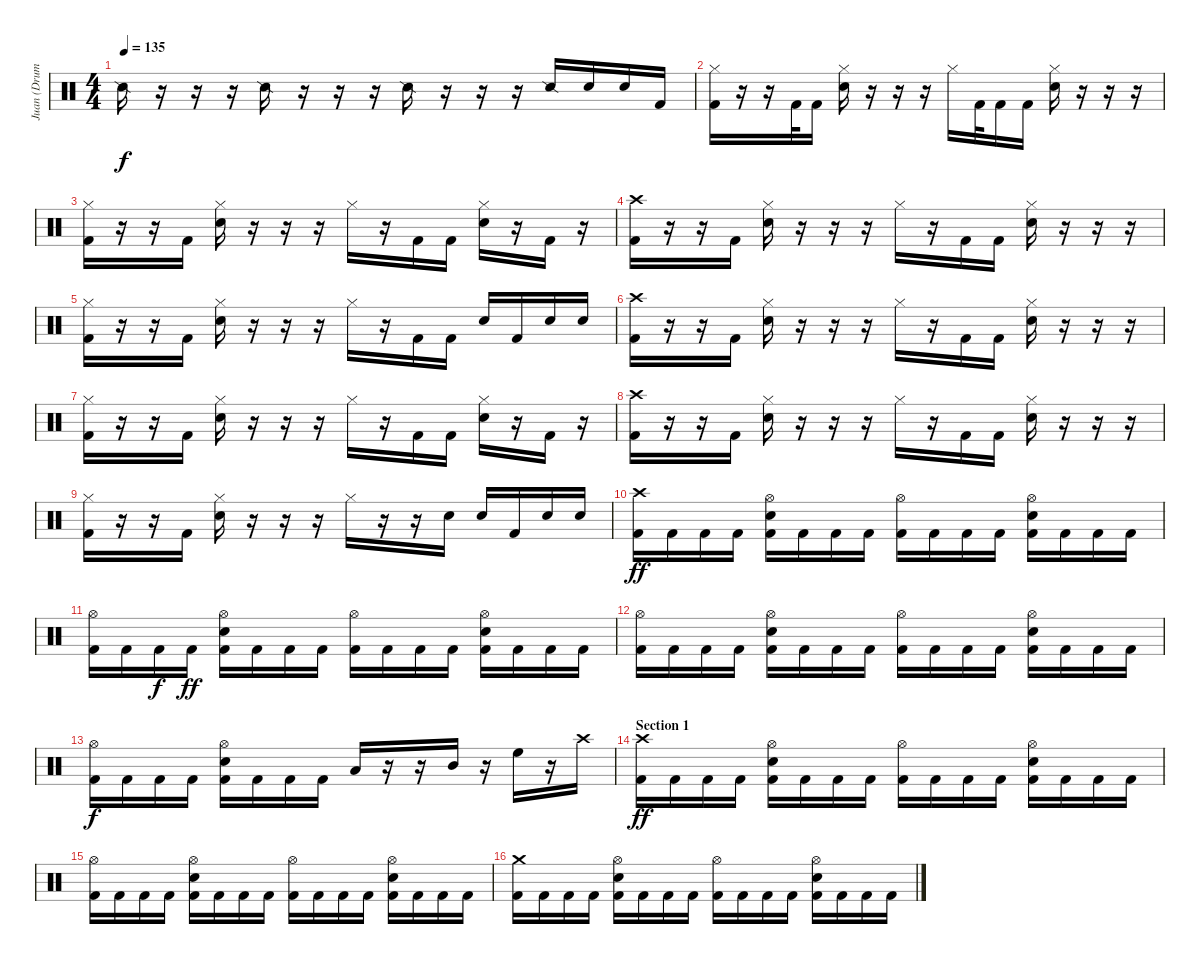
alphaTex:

\track ("Juan (Drums)" "Juan (Drum") {instrument percussion}
\staff {score}
\articulation defaults
\ts (4 4)
\tempo 135
\clef neutral
\ks c "Snare (side stick) 2".16{dy f}
r.16 r.16 r.16 "Snare (side stick) 2".16 r.16 r.16 r.16 "Snare (side stick) 2".16 r.16 r.16 r.16 "Snare (side stick) 2".16 "Electric Snare (hit)".16 "Electric Snare (hit)".16 "Kick (hit) 2".16 |
("Hi-Hat (closed)" "Kick (hit) 2").16 r.16 r.16 "Kick (hit) 2".32 "Kick (hit) 2".16 ("Hi-Hat (closed)" "Electric Snare (hit)").16 r.16 r.16 r.16 "Hi-Hat (closed)".16 "Kick (hit) 2".32 "Kick (hit) 2".16 "Kick (hit) 2".16 ("Hi-Hat (closed)" "Electric Snare (hit)").16 r.16 r.16 r.16 |
("Hi-Hat (closed)" "Kick (hit) 2").16 r.16 r.16 "Kick (hit) 2".16 ("Hi-Hat (closed)" "Electric Snare (hit)").16 r.16 r.16 r.16 "Hi-Hat (closed)".16 r.16 "Kick (hit) 2".16 "Kick (hit) 2".16 ("Hi-Hat (closed)" "Electric Snare (hit)").16 r.16 "Kick (hit) 2".16 r.16 |
("Crash high (hit)" "Kick (hit) 2").16 r.16 r.16 "Kick (hit) 2".16 ("Hi-Hat (closed)" "Electric Snare (hit)").16 r.16 r.16 r.16 "Hi-Hat (closed)".16 r.16 "Kick (hit) 2".16 "Kick (hit) 2".16 ("Hi-Hat (closed)" "Electric Snare (hit)").16 r.16 r.16 r.16 |
("Hi-Hat (closed)" "Kick (hit) 2").16 r.16 r.16 "Kick (hit) 2".16 ("Hi-Hat (closed)" "Electric Snare (hit)").16 r.16 r.16 r.16 "Hi-Hat (closed)".16 r.16 "Kick (hit) 2".16 "Kick (hit) 2".16 "Electric Snare (hit)".16 "Kick (hit) 2".16 "Electric Snare (hit)".16 "Electric Snare (hit)".16 |
("Crash high (hit)" "Kick (hit) 2").16 r.16 r.16 "Kick (hit) 2".16 ("Hi-Hat (closed)" "Electric Snare (hit)").16 r.16 r.16 r.16 "Hi-Hat (closed)".16 r.16 "Kick (hit) 2".16 "Kick (hit) 2".16 ("Hi-Hat (closed)" "Electric Snare (hit)").16 r.16 r.16 r.16 |
("Hi-Hat (closed)" "Kick (hit) 2").16 r.16 r.16 "Kick (hit) 2".16 ("Hi-Hat (closed)" "Electric Snare (hit)").16 r.16 r.16 r.16 "Hi-Hat (closed)".16 r.16 "Kick (hit) 2".16 "Kick (hit) 2".16 ("Hi-Hat (closed)" "Electric Snare (hit)").16 r.16 "Kick (hit) 2".16 r.16 |
("Crash high (hit)" "Kick (hit) 2").16 r.16 r.16 "Kick (hit) 2".16 ("Hi-Hat (closed)" "Electric Snare (hit)").16 r.16 r.16 r.16 "Hi-Hat (closed)".16 r.16 "Kick (hit) 2".16 "Kick (hit) 2".16 ("Hi-Hat (closed)" "Electric Snare (hit)").16 r.16 r.16 r.16 |
("Hi-Hat (closed)" "Kick (hit) 2").16 r.16 r.16 "Kick (hit) 2".16 ("Hi-Hat (closed)" "Electric Snare (hit)").16 r.16 r.16 r.16 "Hi-Hat (closed)".16 r.16 r.16 "Electric Snare (hit)".16 "Electric Snare (hit)".16 "Kick (hit) 2".16 "Electric Snare (hit)".16 "Electric Snare (hit)".16 |
("Crash high (hit)" "Kick (hit) 2").16{dy ff} "Kick (hit) 2".16 "Kick (hit) 2".16 "Kick (hit) 2".16 ("Hi-Hat (open)" "Electric Snare (hit)" "Kick (hit) 2").16 "Kick (hit) 2".16 "Kick (hit) 2".16 "Kick (hit) 2".16 ("Hi-Hat (open)" "Kick (hit) 2").16 "Kick (hit) 2".16 "Kick (hit) 2".16 "Kick (hit) 2".16 ("Hi-Hat (open)" "Electric Snare (hit)" "Kick (hit) 2").16 "Kick (hit) 2".16 "Kick (hit) 2".16 "Kick (hit) 2".16 |
("Hi-Hat (open)" "Kick (hit) 2").16 "Kick (hit) 2".16 "Kick (hit) 2".16{dy f} "Kick (hit) 2".16{dy ff} ("Hi-Hat (open)" "Electric Snare (hit)" "Kick (hit) 2").16 "Kick (hit) 2".16 "Kick (hit) 2".16 "Kick (hit) 2".16 ("Hi-Hat (open)" "Kick (hit) 2").16 "Kick (hit) 2".16 "Kick (hit) 2".16 "Kick (hit) 2".16 ("Hi-Hat (open)" "Electric Snare (hit)" "Kick (hit) 2").16 "Kick (hit) 2".16 "Kick (hit) 2".16 "Kick (hit) 2".16 |
("Hi-Hat (open)" "Kick (hit) 2").16 "Kick (hit) 2".16 "Kick (hit) 2".16 "Kick (hit) 2".16 ("Hi-Hat (open)" "Electric Snare (hit)" "Kick (hit) 2").16 "Kick (hit) 2".16 "Kick (hit) 2".16 "Kick (hit) 2".16 ("Hi-Hat (open)" "Kick (hit) 2").16 "Kick (hit) 2".16 "Kick (hit) 2".16 "Kick (hit) 2".16 ("Hi-Hat (open)" "Electric Snare (hit)" "Kick (hit) 2").16 "Kick (hit) 2".16 "Kick (hit) 2".16 "Kick (hit) 2".16 |
("Hi-Hat (open)" "Kick (hit) 2").16{dy f} "Kick (hit) 2".16 "Kick (hit) 2".16 "Kick (hit) 2".16 ("Hi-Hat (open)" "Electric Snare (hit)" "Kick (hit) 2").16 "Kick (hit) 2".16 "Kick (hit) 2".16 "Kick (hit) 2".16 "Low Tom (hit)".16 r.16 r.16 "Mid Tom (hit)".16 r.16 "High Floor Tom (hit)".16 r.16 "Crash high (hit)".16 |
\section ("" "Section 1")
("Crash high (hit)" "Kick (hit) 2").16{dy ff} "Kick (hit) 2".16 "Kick (hit) 2".16 "Kick (hit) 2".16 ("Hi-Hat (open)" "Electric Snare (hit)" "Kick (hit) 2").16 "Kick (hit) 2".16 "Kick (hit) 2".16 "Kick (hit) 2".16 ("Hi-Hat (open)" "Kick (hit) 2").16 "Kick (hit) 2".16 "Kick (hit) 2".16 "Kick (hit) 2".16 ("Hi-Hat (open)" "Electric Snare (hit)" "Kick (hit) 2").16 "Kick (hit) 2".16 "Kick (hit) 2".16 "Kick (hit) 2".16 |
("Hi-Hat (open)" "Kick (hit) 2").16 "Kick (hit) 2".16 "Kick (hit) 2".16 "Kick (hit) 2".16 ("Hi-Hat (open)" "Electric Snare (hit)" "Kick (hit) 2").16 "Kick (hit) 2".16 "Kick (hit) 2".16 "Kick (hit) 2".16 ("Hi-Hat (open)" "Kick (hit) 2").16 "Kick (hit) 2".16 "Kick (hit) 2".16 "Kick (hit) 2".16 ("Hi-Hat (open)" "Electric Snare (hit)" "Kick (hit) 2").16 "Kick (hit) 2".16 "Kick (hit) 2".16 "Kick (hit) 2".16 |
("Crash medium (hit)" "Kick (hit) 2").16 "Kick (hit) 2".16 "Kick (hit) 2".16 "Kick (hit) 2".16 ("Hi-Hat (open)" "Electric Snare (hit)" "Kick (hit) 2").16 "Kick (hit) 2".16 "Kick (hit) 2".16 "Kick (hit) 2".16 ("Hi-Hat (open)" "Kick (hit) 2").16 "Kick (hit) 2".16 "Kick (hit) 2".16 "Kick (hit) 2".16 ("Hi-Hat (open)" "Electric Snare (hit)" "Kick (hit) 2").16 "Kick (hit) 2".16 "Kick (hit) 2".16 "Kick (hit) 2".16
